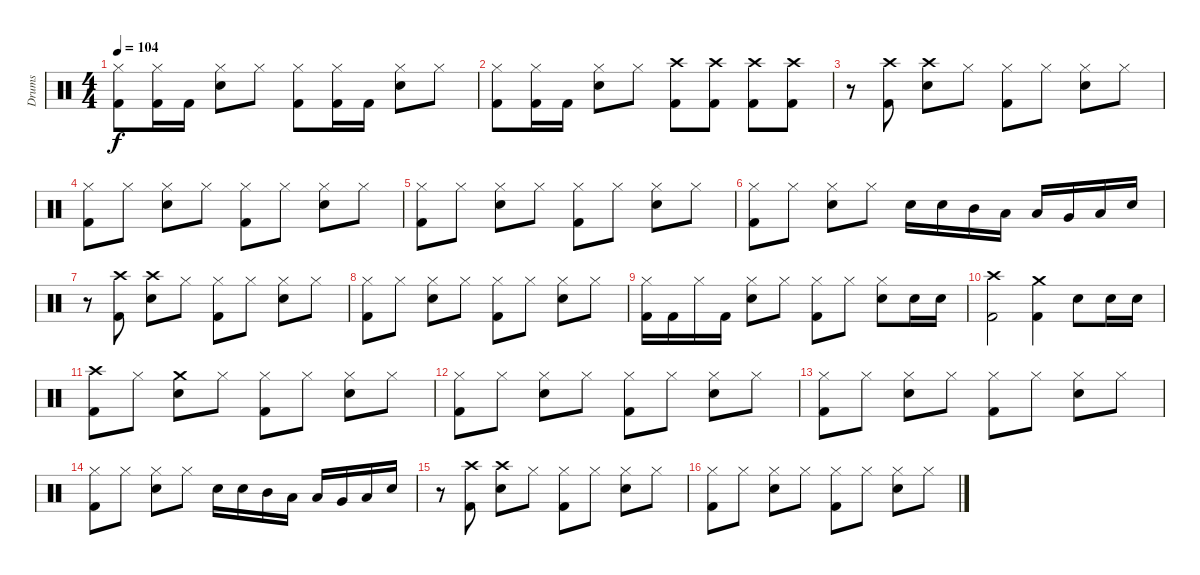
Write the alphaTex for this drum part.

\track ("Drums" "Drums") {instrument percussion}
\staff {score}
\articulation defaults
\ts (4 4)
\tempo 104
\clef neutral
\ks c
("Kick (hit) 2" "Hi-Hat (closed)").8{dy f} ("Hi-Hat (closed)" "Kick (hit) 2").16 "Kick (hit) 2".16 ("Snare (hit) 2" "Hi-Hat (closed)").8 "Hi-Hat (closed)".8 ("Hi-Hat (closed)" "Kick (hit) 2").8 ("Kick (hit) 2" "Hi-Hat (closed)").16 "Kick (hit) 2".16 ("Snare (hit) 2" "Hi-Hat (closed)").8 "Hi-Hat (closed)".8 |
("Hi-Hat (closed)" "Kick (hit) 2").8 ("Kick (hit) 2" "Hi-Hat (closed)").16 "Kick (hit) 2".16 ("Snare (hit) 2" "Hi-Hat (closed)").8 "Hi-Hat (closed)".8 ("Crash high (hit)" "Kick (hit) 2").8 ("Crash high (hit)" "Kick (hit) 2").8 ("Crash high (hit)" "Kick (hit) 2").8 ("Kick (hit) 2" "Crash high (hit)").8 |
r.8 ("Crash high (hit)" "Kick (hit) 2").8 ("Crash high (hit)" "Snare (hit) 2").8 "Hi-Hat (closed)".8 ("Hi-Hat (closed)" "Kick (hit) 2").8 "Hi-Hat (closed)".8 ("Snare (hit) 2" "Hi-Hat (closed)").8 "Hi-Hat (closed)".8 |
("Kick (hit) 2" "Hi-Hat (closed)").8 "Hi-Hat (closed)".8 ("Hi-Hat (closed)" "Snare (hit) 2").8 "Hi-Hat (closed)".8 ("Hi-Hat (closed)" "Kick (hit) 2").8 "Hi-Hat (closed)".8 ("Snare (hit) 2" "Hi-Hat (closed)").8 "Hi-Hat (closed)".8 |
("Hi-Hat (closed)" "Kick (hit) 2").8 "Hi-Hat (closed)".8 ("Hi-Hat (closed)" "Snare (hit) 2").8 "Hi-Hat (closed)".8 ("Hi-Hat (closed)" "Kick (hit) 2").8 "Hi-Hat (closed)".8 ("Hi-Hat (closed)" "Snare (hit) 2").8 "Hi-Hat (closed)".8 |
("Kick (hit) 2" "Hi-Hat (closed)").8 "Hi-Hat (closed)".8 ("Snare (hit) 2" "Hi-Hat (closed)").8 "Hi-Hat (closed)".8 "Snare (hit) 2".16 "Snare (hit) 2".16 "Mid Tom (hit)".16 "Low Tom (hit)".16 "Low Tom (hit)".16 "Very Low Tom (hit)".16 "Low Floor Tom (hit)".16 "Snare (hit) 2".16 |
r.8 ("Crash high (hit)" "Kick (hit) 2").8 ("Crash high (hit)" "Snare (hit) 2").8 "Hi-Hat (closed)".8 ("Hi-Hat (closed)" "Kick (hit) 2").8 "Hi-Hat (closed)".8 ("Hi-Hat (closed)" "Snare (hit) 2").8 "Hi-Hat (closed)".8 |
("Kick (hit) 2" "Hi-Hat (closed)").8 "Hi-Hat (closed)".8 ("Hi-Hat (closed)" "Snare (hit) 2").8 "Hi-Hat (closed)".8 ("Hi-Hat (closed)" "Kick (hit) 2").8 "Hi-Hat (closed)".8 ("Hi-Hat (closed)" "Snare (hit) 2").8 "Hi-Hat (closed)".8 |
("Hi-Hat (closed)" "Kick (hit) 2").16 "Kick (hit) 2".16 "Hi-Hat (closed)".16 "Kick (hit) 2".16 ("Snare (hit) 2" "Hi-Hat (closed)").8 "Hi-Hat (closed)".8 ("Hi-Hat (closed)" "Kick (hit) 2").8 "Hi-Hat (closed)".8 ("Snare (hit) 2" "Hi-Hat (closed)").8 "Snare (hit) 2".16 "Snare (hit) 2".16 |
("Kick (hit) 2" "Crash high (hit)").2 ("Crash medium (hit)" "Kick (hit) 2").4 "Snare (hit) 2".8 "Snare (hit) 2".16 "Snare (hit) 2".16 |
("Kick (hit) 2" "Crash high (hit)").8 "Hi-Hat (closed)".8 ("Snare (hit) 2" "Crash medium (hit)").8 "Hi-Hat (closed)".8 ("Kick (hit) 2" "Hi-Hat (closed)").8 "Hi-Hat (closed)".8 ("Snare (hit) 2" "Hi-Hat (closed)").8 "Hi-Hat (closed)".8 |
("Kick (hit) 2" "Hi-Hat (closed)").8 "Hi-Hat (closed)".8 ("Hi-Hat (closed)" "Snare (hit) 2").8 "Hi-Hat (closed)".8 ("Hi-Hat (closed)" "Kick (hit) 2").8 "Hi-Hat (closed)".8 ("Snare (hit) 2" "Hi-Hat (closed)").8 "Hi-Hat (closed)".8 |
("Kick (hit) 2" "Hi-Hat (closed)").8 "Hi-Hat (closed)".8 ("Hi-Hat (closed)" "Snare (hit) 2").8 "Hi-Hat (closed)".8 ("Hi-Hat (closed)" "Kick (hit) 2").8 "Hi-Hat (closed)".8 ("Snare (hit) 2" "Hi-Hat (closed)").8 "Hi-Hat (closed)".8 |
("Kick (hit) 2" "Hi-Hat (closed)").8 "Hi-Hat (closed)".8 ("Snare (hit) 2" "Hi-Hat (closed)").8 "Hi-Hat (closed)".8 "Snare (hit) 2".16 "Snare (hit) 2".16 "Mid Tom (hit)".16 "Low Tom (hit)".16 "Low Tom (hit)".16 "Very Low Tom (hit)".16 "Low Floor Tom (hit)".16 "Snare (hit) 2".16 |
r.8 ("Crash high (hit)" "Kick (hit) 2").8 ("Snare (hit) 2" "Crash high (hit)").8 "Hi-Hat (closed)".8 ("Hi-Hat (closed)" "Kick (hit) 2").8 "Hi-Hat (closed)".8 ("Snare (hit) 2" "Hi-Hat (closed)").8 "Hi-Hat (closed)".8 |
("Kick (hit) 2" "Hi-Hat (closed)").8 "Hi-Hat (closed)".8 ("Snare (hit) 2" "Hi-Hat (closed)").8 "Hi-Hat (closed)".8 ("Hi-Hat (closed)" "Kick (hit) 2").8 "Hi-Hat (closed)".8 ("Snare (hit) 2" "Hi-Hat (closed)").8 "Hi-Hat (closed)".8
